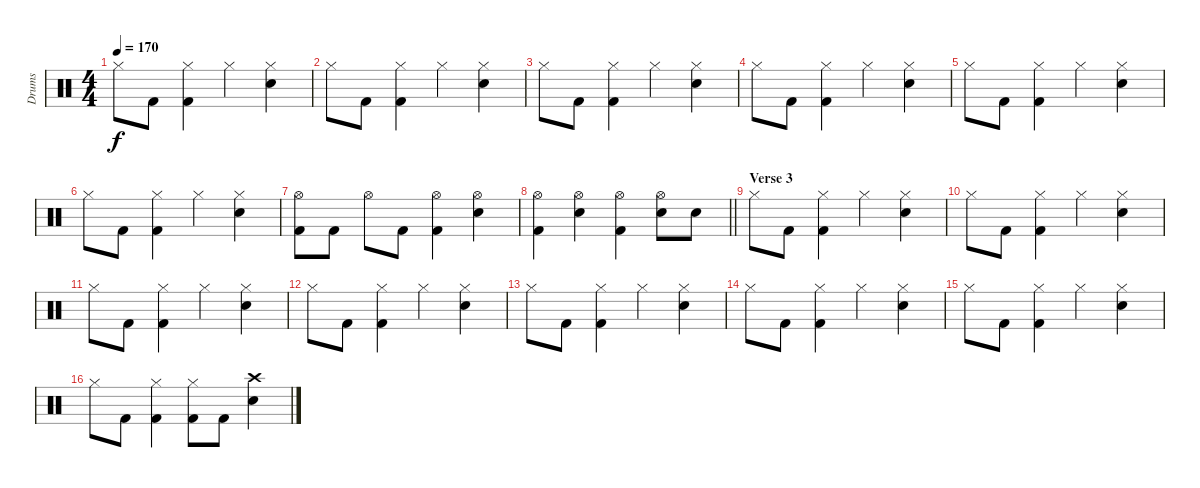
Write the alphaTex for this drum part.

\track ("Drums" "Drums") {instrument percussion}
\staff {score}
\articulation defaults
\ts (4 4)
\tempo 170
\clef neutral
\ks c "Hi-Hat (closed)".8{dy f} "Kick (hit) 2".8
("Hi-Hat (closed)" "Kick (hit) 2").4 "Hi-Hat (closed)".4 ("Hi-Hat (closed)" "Electric Snare (hit)").4 |
"Hi-Hat (closed)".8 "Kick (hit) 2".8 ("Hi-Hat (closed)" "Kick (hit) 2").4 "Hi-Hat (closed)".4 ("Hi-Hat (closed)" "Electric Snare (hit)").4 |
"Hi-Hat (closed)".8 "Kick (hit) 2".8 ("Hi-Hat (closed)" "Kick (hit) 2").4 "Hi-Hat (closed)".4 ("Hi-Hat (closed)" "Electric Snare (hit)").4 |
"Hi-Hat (closed)".8 "Kick (hit) 2".8 ("Hi-Hat (closed)" "Kick (hit) 2").4 "Hi-Hat (closed)".4 ("Hi-Hat (closed)" "Electric Snare (hit)").4 |
"Hi-Hat (closed)".8 "Kick (hit) 2".8 ("Hi-Hat (closed)" "Kick (hit) 2").4 "Hi-Hat (closed)".4 ("Hi-Hat (closed)" "Electric Snare (hit)").4 |
"Hi-Hat (closed)".8 "Kick (hit) 2".8 ("Hi-Hat (closed)" "Kick (hit) 2").4 "Hi-Hat (closed)".4 ("Hi-Hat (closed)" "Electric Snare (hit)").4 |
("Hi-Hat (open)" "Kick (hit) 2").8 "Kick (hit) 2".8 "Hi-Hat (open)".8 "Kick (hit) 2".8 ("Hi-Hat (open)" "Kick (hit) 2").4 ("Hi-Hat (open)" "Electric Snare (hit)").4 |
\barLineRight lightlight
("Hi-Hat (open)" "Kick (hit) 2").4 ("Hi-Hat (open)" "Electric Snare (hit)").4 ("Hi-Hat (open)" "Kick (hit) 2").4 ("Hi-Hat (open)" "Electric Snare (hit)").8 "Electric Snare (hit)".8 |
\section ("" "Verse 3")
"Hi-Hat (closed)".8 "Kick (hit) 2".8 ("Hi-Hat (closed)" "Kick (hit) 2").4 "Hi-Hat (closed)".4 ("Hi-Hat (closed)" "Electric Snare (hit)").4 |
"Hi-Hat (closed)".8 "Kick (hit) 2".8 ("Hi-Hat (closed)" "Kick (hit) 2").4 "Hi-Hat (closed)".4 ("Hi-Hat (closed)" "Electric Snare (hit)").4 |
"Hi-Hat (closed)".8 "Kick (hit) 2".8 ("Hi-Hat (closed)" "Kick (hit) 2").4 "Hi-Hat (closed)".4 ("Hi-Hat (closed)" "Electric Snare (hit)").4 |
"Hi-Hat (closed)".8 "Kick (hit) 2".8 ("Hi-Hat (closed)" "Kick (hit) 2").4 "Hi-Hat (closed)".4 ("Hi-Hat (closed)" "Electric Snare (hit)").4 |
"Hi-Hat (closed)".8 "Kick (hit) 2".8 ("Hi-Hat (closed)" "Kick (hit) 2").4 "Hi-Hat (closed)".4 ("Hi-Hat (closed)" "Electric Snare (hit)").4 |
"Hi-Hat (closed)".8 "Kick (hit) 2".8 ("Hi-Hat (closed)" "Kick (hit) 2").4 "Hi-Hat (closed)".4 ("Hi-Hat (closed)" "Electric Snare (hit)").4 |
"Hi-Hat (closed)".8 "Kick (hit) 2".8 ("Hi-Hat (closed)" "Kick (hit) 2").4 "Hi-Hat (closed)".4 ("Hi-Hat (closed)" "Electric Snare (hit)").4 |
"Hi-Hat (closed)".8 "Kick (hit) 2".8 ("Hi-Hat (closed)" "Kick (hit) 2").4 ("Hi-Hat (closed)" "Kick (hit) 2").8 "Kick (hit) 2".8 ("Crash high (hit)" "Electric Snare (hit)").4
